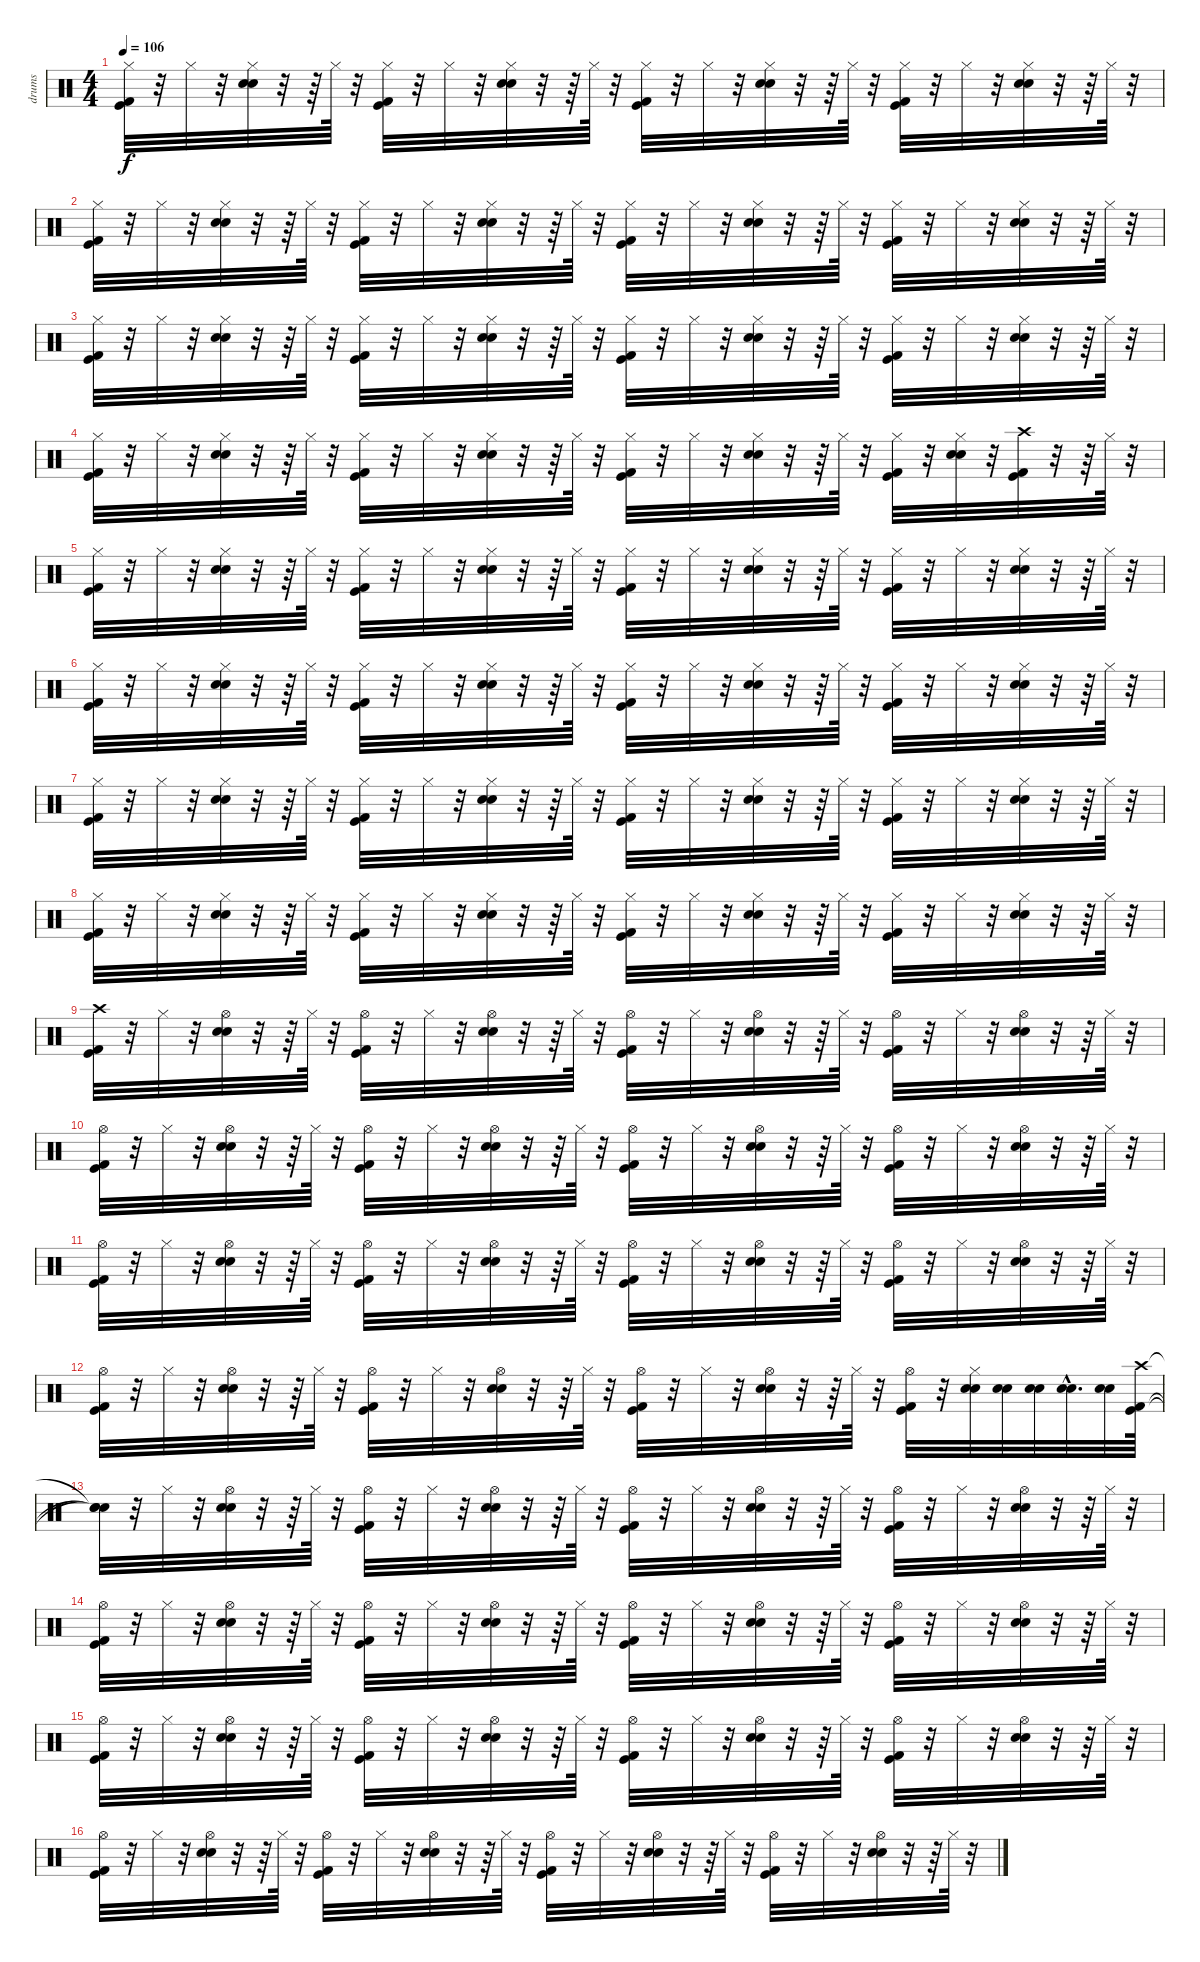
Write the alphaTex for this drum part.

\track ("drums" "drums") {instrument percussion}
\staff {score}
\articulation defaults
\ts (4 4)
\tempo 106
\clef neutral
\ks c
("Kick (hit) 2" "Kick (hit)" "Hi-Hat (closed)").32{dy f} r.32 "Hi-Hat (closed)".32 r.32 ("Electric Snare (hit)" "Snare (hit) 2" "Hi-Hat (closed)").32 r.32 r.64 "Hi-Hat (closed)".64 r.32 ("Kick (hit) 2" "Kick (hit)" "Hi-Hat (closed)").32 r.32 "Hi-Hat (closed)".32 r.32 ("Electric Snare (hit)" "Snare (hit) 2" "Hi-Hat (closed)").32 r.32 r.64 "Hi-Hat (closed)".64 r.32 ("Kick (hit) 2" "Kick (hit)" "Hi-Hat (closed)").32 r.32 "Hi-Hat (closed)".32 r.32 ("Electric Snare (hit)" "Snare (hit) 2" "Hi-Hat (closed)").32 r.32 r.64 "Hi-Hat (closed)".64 r.32 ("Kick (hit) 2" "Kick (hit)" "Hi-Hat (closed)").32 r.32 "Hi-Hat (closed)".32 r.32 ("Electric Snare (hit)" "Snare (hit) 2" "Hi-Hat (closed)").32 r.32 r.64 "Hi-Hat (closed)".64 r.32 |
("Kick (hit) 2" "Kick (hit)" "Hi-Hat (closed)").32 r.32 "Hi-Hat (closed)".32 r.32 ("Electric Snare (hit)" "Snare (hit) 2" "Hi-Hat (closed)").32 r.32 r.64 "Hi-Hat (closed)".64 r.32 ("Kick (hit) 2" "Kick (hit)" "Hi-Hat (closed)").32 r.32 "Hi-Hat (closed)".32 r.32 ("Electric Snare (hit)" "Snare (hit) 2" "Hi-Hat (closed)").32 r.32 r.64 "Hi-Hat (closed)".64 r.32 ("Kick (hit) 2" "Kick (hit)" "Hi-Hat (closed)").32 r.32 "Hi-Hat (closed)".32 r.32 ("Electric Snare (hit)" "Snare (hit) 2" "Hi-Hat (closed)").32 r.32 r.64 "Hi-Hat (closed)".64 r.32 ("Kick (hit) 2" "Kick (hit)" "Hi-Hat (closed)").32 r.32 "Hi-Hat (closed)".32 r.32 ("Electric Snare (hit)" "Snare (hit) 2" "Hi-Hat (closed)").32 r.32 r.64 "Hi-Hat (closed)".64 r.32 |
("Kick (hit) 2" "Kick (hit)" "Hi-Hat (closed)").32 r.32 "Hi-Hat (closed)".32 r.32 ("Electric Snare (hit)" "Snare (hit) 2" "Hi-Hat (closed)").32 r.32 r.64 "Hi-Hat (closed)".64 r.32 ("Kick (hit) 2" "Kick (hit)" "Hi-Hat (closed)").32 r.32 "Hi-Hat (closed)".32 r.32 ("Electric Snare (hit)" "Snare (hit) 2" "Hi-Hat (closed)").32 r.32 r.64 "Hi-Hat (closed)".64 r.32 ("Kick (hit) 2" "Kick (hit)" "Hi-Hat (closed)").32 r.32 "Hi-Hat (closed)".32 r.32 ("Electric Snare (hit)" "Snare (hit) 2" "Hi-Hat (closed)").32 r.32 r.64 "Hi-Hat (closed)".64 r.32 ("Kick (hit) 2" "Kick (hit)" "Hi-Hat (closed)").32 r.32 "Hi-Hat (closed)".32 r.32 ("Electric Snare (hit)" "Snare (hit) 2" "Hi-Hat (closed)").32 r.32 r.64 "Hi-Hat (closed)".64 r.32 |
("Kick (hit) 2" "Kick (hit)" "Hi-Hat (closed)").32 r.32 "Hi-Hat (closed)".32 r.32 ("Electric Snare (hit)" "Snare (hit) 2" "Hi-Hat (closed)").32 r.32 r.64 "Hi-Hat (closed)".64 r.32 ("Kick (hit) 2" "Kick (hit)" "Hi-Hat (closed)").32 r.32 "Hi-Hat (closed)".32 r.32 ("Electric Snare (hit)" "Snare (hit) 2" "Hi-Hat (closed)").32 r.32 r.64 "Hi-Hat (closed)".64 r.32 ("Kick (hit) 2" "Kick (hit)" "Hi-Hat (closed)").32 r.32 "Hi-Hat (closed)".32 r.32 ("Electric Snare (hit)" "Snare (hit) 2" "Hi-Hat (closed)").32 r.32 r.64 "Hi-Hat (closed)".64 r.32 ("Kick (hit) 2" "Kick (hit)" "Hi-Hat (closed)").32 r.32 ("Hi-Hat (closed)" "Snare (hit) 2" "Electric Snare (hit)").32 r.32 ("Kick (hit) 2" "Kick (hit)" "Crash high (hit)").32 r.32 r.64 "Hi-Hat (closed)".64 r.32 |
("Kick (hit) 2" "Kick (hit)" "Hi-Hat (closed)").32 r.32 "Hi-Hat (closed)".32 r.32 ("Electric Snare (hit)" "Snare (hit) 2" "Hi-Hat (closed)").32 r.32 r.64 "Hi-Hat (closed)".64 r.32 ("Kick (hit) 2" "Kick (hit)" "Hi-Hat (closed)").32 r.32 "Hi-Hat (closed)".32 r.32 ("Electric Snare (hit)" "Snare (hit) 2" "Hi-Hat (closed)").32 r.32 r.64 "Hi-Hat (closed)".64 r.32 ("Kick (hit) 2" "Kick (hit)" "Hi-Hat (closed)").32 r.32 "Hi-Hat (closed)".32 r.32 ("Electric Snare (hit)" "Snare (hit) 2" "Hi-Hat (closed)").32 r.32 r.64 "Hi-Hat (closed)".64 r.32 ("Kick (hit) 2" "Kick (hit)" "Hi-Hat (closed)").32 r.32 "Hi-Hat (closed)".32 r.32 ("Electric Snare (hit)" "Snare (hit) 2" "Hi-Hat (closed)").32 r.32 r.64 "Hi-Hat (closed)".64 r.32 |
("Kick (hit) 2" "Kick (hit)" "Hi-Hat (closed)").32 r.32 "Hi-Hat (closed)".32 r.32 ("Electric Snare (hit)" "Snare (hit) 2" "Hi-Hat (closed)").32 r.32 r.64 "Hi-Hat (closed)".64 r.32 ("Kick (hit) 2" "Kick (hit)" "Hi-Hat (closed)").32 r.32 "Hi-Hat (closed)".32 r.32 ("Electric Snare (hit)" "Snare (hit) 2" "Hi-Hat (closed)").32 r.32 r.64 "Hi-Hat (closed)".64 r.32 ("Kick (hit) 2" "Kick (hit)" "Hi-Hat (closed)").32 r.32 "Hi-Hat (closed)".32 r.32 ("Electric Snare (hit)" "Snare (hit) 2" "Hi-Hat (closed)").32 r.32 r.64 "Hi-Hat (closed)".64 r.32 ("Kick (hit) 2" "Kick (hit)" "Hi-Hat (closed)").32 r.32 "Hi-Hat (closed)".32 r.32 ("Electric Snare (hit)" "Snare (hit) 2" "Hi-Hat (closed)").32 r.32 r.64 "Hi-Hat (closed)".64 r.32 |
("Kick (hit) 2" "Kick (hit)" "Hi-Hat (closed)").32 r.32 "Hi-Hat (closed)".32 r.32 ("Electric Snare (hit)" "Snare (hit) 2" "Hi-Hat (closed)").32 r.32 r.64 "Hi-Hat (closed)".64 r.32 ("Kick (hit) 2" "Kick (hit)" "Hi-Hat (closed)").32 r.32 "Hi-Hat (closed)".32 r.32 ("Electric Snare (hit)" "Snare (hit) 2" "Hi-Hat (closed)").32 r.32 r.64 "Hi-Hat (closed)".64 r.32 ("Kick (hit) 2" "Kick (hit)" "Hi-Hat (closed)").32 r.32 "Hi-Hat (closed)".32 r.32 ("Electric Snare (hit)" "Snare (hit) 2" "Hi-Hat (closed)").32 r.32 r.64 "Hi-Hat (closed)".64 r.32 ("Kick (hit) 2" "Kick (hit)" "Hi-Hat (closed)").32 r.32 "Hi-Hat (closed)".32 r.32 ("Electric Snare (hit)" "Snare (hit) 2" "Hi-Hat (closed)").32 r.32 r.64 "Hi-Hat (closed)".64 r.32 |
("Kick (hit) 2" "Kick (hit)" "Hi-Hat (closed)").32 r.32 "Hi-Hat (closed)".32 r.32 ("Electric Snare (hit)" "Snare (hit) 2" "Hi-Hat (closed)").32 r.32 r.64 "Hi-Hat (closed)".64 r.32 ("Kick (hit) 2" "Kick (hit)" "Hi-Hat (closed)").32 r.32 "Hi-Hat (closed)".32 r.32 ("Electric Snare (hit)" "Snare (hit) 2" "Hi-Hat (closed)").32 r.32 r.64 "Hi-Hat (closed)".64 r.32 ("Kick (hit) 2" "Kick (hit)" "Hi-Hat (closed)").32 r.32 "Hi-Hat (closed)".32 r.32 ("Electric Snare (hit)" "Snare (hit) 2" "Hi-Hat (closed)").32 r.32 r.64 "Hi-Hat (closed)".64 r.32 ("Kick (hit) 2" "Kick (hit)" "Hi-Hat (closed)").32 r.32 "Hi-Hat (closed)".32 r.32 ("Electric Snare (hit)" "Snare (hit) 2" "Hi-Hat (closed)").32 r.32 r.64 "Hi-Hat (closed)".64 r.32 |
("Kick (hit) 2" "Kick (hit)" "Crash high (hit)").32 r.32 "Hi-Hat (closed)".32 r.32 ("Electric Snare (hit)" "Snare (hit) 2" "Hi-Hat (open)").32 r.32 r.64 "Hi-Hat (closed)".64 r.32 ("Kick (hit) 2" "Kick (hit)" "Hi-Hat (open)").32 r.32 "Hi-Hat (closed)".32 r.32 ("Electric Snare (hit)" "Snare (hit) 2" "Hi-Hat (open)").32 r.32 r.64 "Hi-Hat (closed)".64 r.32 ("Kick (hit) 2" "Kick (hit)" "Hi-Hat (open)").32 r.32 "Hi-Hat (closed)".32 r.32 ("Electric Snare (hit)" "Snare (hit) 2" "Hi-Hat (open)").32 r.32 r.64 "Hi-Hat (closed)".64 r.32 ("Kick (hit) 2" "Kick (hit)" "Hi-Hat (open)").32 r.32 "Hi-Hat (closed)".32 r.32 ("Electric Snare (hit)" "Snare (hit) 2" "Hi-Hat (open)").32 r.32 r.64 "Hi-Hat (closed)".64 r.32 |
("Hi-Hat (open)" "Kick (hit)" "Kick (hit) 2").32 r.32 "Hi-Hat (closed)".32 r.32 ("Electric Snare (hit)" "Snare (hit) 2" "Hi-Hat (open)").32 r.32 r.64 "Hi-Hat (closed)".64 r.32 ("Kick (hit) 2" "Kick (hit)" "Hi-Hat (open)").32 r.32 "Hi-Hat (closed)".32 r.32 ("Electric Snare (hit)" "Snare (hit) 2" "Hi-Hat (open)").32 r.32 r.64 "Hi-Hat (closed)".64 r.32 ("Kick (hit) 2" "Kick (hit)" "Hi-Hat (open)").32 r.32 "Hi-Hat (closed)".32 r.32 ("Electric Snare (hit)" "Snare (hit) 2" "Hi-Hat (open)").32 r.32 r.64 "Hi-Hat (closed)".64 r.32 ("Kick (hit) 2" "Kick (hit)" "Hi-Hat (open)").32 r.32 "Hi-Hat (closed)".32 r.32 ("Electric Snare (hit)" "Snare (hit) 2" "Hi-Hat (open)").32 r.32 r.64 "Hi-Hat (closed)".64 r.32 |
("Hi-Hat (open)" "Kick (hit)" "Kick (hit) 2").32 r.32 "Hi-Hat (closed)".32 r.32 ("Electric Snare (hit)" "Snare (hit) 2" "Hi-Hat (open)").32 r.32 r.64 "Hi-Hat (closed)".64 r.32 ("Kick (hit) 2" "Kick (hit)" "Hi-Hat (open)").32 r.32 "Hi-Hat (closed)".32 r.32 ("Electric Snare (hit)" "Snare (hit) 2" "Hi-Hat (open)").32 r.32 r.64 "Hi-Hat (closed)".64 r.32 ("Kick (hit) 2" "Kick (hit)" "Hi-Hat (open)").32 r.32 "Hi-Hat (closed)".32 r.32 ("Electric Snare (hit)" "Snare (hit) 2" "Hi-Hat (open)").32 r.32 r.64 "Hi-Hat (closed)".64 r.32 ("Kick (hit) 2" "Kick (hit)" "Hi-Hat (open)").32 r.32 "Hi-Hat (closed)".32 r.32 ("Electric Snare (hit)" "Snare (hit) 2" "Hi-Hat (open)").32 r.32 r.64 "Hi-Hat (closed)".64 r.32 |
("Hi-Hat (open)" "Kick (hit)" "Kick (hit) 2").32 r.32 "Hi-Hat (closed)".32 r.32 ("Electric Snare (hit)" "Snare (hit) 2" "Hi-Hat (open)").32 r.32 r.64 "Hi-Hat (closed)".64 r.32 ("Kick (hit) 2" "Kick (hit)" "Hi-Hat (open)").32 r.32 "Hi-Hat (closed)".32 r.32 ("Electric Snare (hit)" "Snare (hit) 2" "Hi-Hat (open)").32 r.32 r.64 "Hi-Hat (closed)".64 r.32 ("Kick (hit) 2" "Kick (hit)" "Hi-Hat (open)").32 r.32 "Hi-Hat (closed)".32 r.32 ("Electric Snare (hit)" "Snare (hit) 2" "Hi-Hat (open)").32 r.32 r.64 "Hi-Hat (closed)".64 r.32 ("Kick (hit) 2" "Kick (hit)" "Hi-Hat (open)").32 r.32 ("Hi-Hat (closed)" "Snare (hit) 2" "Electric Snare (hit)").32 ("Electric Snare (hit)" "Snare (hit) 2").32 ("Electric Snare (hit)" "Snare (hit) 2").32 ("Snare (hit) 2"{hac} "Electric Snare (hit)"{hac}).32{d} ("Electric Snare (hit)" "Snare (hit) 2").32 ("Kick (hit)" "Kick (hit) 2" "Crash high (hit)").64 |
("Snare (hit)"{t} "Snare (hit)"{t} "Snare (hit)"{t}).32 r.32 "Hi-Hat (closed)".32 r.32 ("Electric Snare (hit)" "Snare (hit) 2" "Hi-Hat (open)").32 r.32 r.64 "Hi-Hat (closed)".64 r.32 ("Kick (hit) 2" "Kick (hit)" "Hi-Hat (open)").32 r.32 "Hi-Hat (closed)".32 r.32 ("Electric Snare (hit)" "Snare (hit) 2" "Hi-Hat (open)").32 r.32 r.64 "Hi-Hat (closed)".64 r.32 ("Kick (hit) 2" "Kick (hit)" "Hi-Hat (open)").32 r.32 "Hi-Hat (closed)".32 r.32 ("Electric Snare (hit)" "Snare (hit) 2" "Hi-Hat (open)").32 r.32 r.64 "Hi-Hat (closed)".64 r.32 ("Kick (hit) 2" "Kick (hit)" "Hi-Hat (open)").32 r.32 "Hi-Hat (closed)".32 r.32 ("Electric Snare (hit)" "Snare (hit) 2" "Hi-Hat (open)").32 r.32 r.64 "Hi-Hat (closed)".64 r.32 |
("Hi-Hat (open)" "Kick (hit)" "Kick (hit) 2").32 r.32 "Hi-Hat (closed)".32 r.32 ("Electric Snare (hit)" "Snare (hit) 2" "Hi-Hat (open)").32 r.32 r.64 "Hi-Hat (closed)".64 r.32 ("Kick (hit) 2" "Kick (hit)" "Hi-Hat (open)").32 r.32 "Hi-Hat (closed)".32 r.32 ("Electric Snare (hit)" "Snare (hit) 2" "Hi-Hat (open)").32 r.32 r.64 "Hi-Hat (closed)".64 r.32 ("Kick (hit) 2" "Kick (hit)" "Hi-Hat (open)").32 r.32 "Hi-Hat (closed)".32 r.32 ("Electric Snare (hit)" "Snare (hit) 2" "Hi-Hat (open)").32 r.32 r.64 "Hi-Hat (closed)".64 r.32 ("Kick (hit) 2" "Kick (hit)" "Hi-Hat (open)").32 r.32 "Hi-Hat (closed)".32 r.32 ("Electric Snare (hit)" "Snare (hit) 2" "Hi-Hat (open)").32 r.32 r.64 "Hi-Hat (closed)".64 r.32 |
("Hi-Hat (open)" "Kick (hit)" "Kick (hit) 2").32 r.32 "Hi-Hat (closed)".32 r.32 ("Electric Snare (hit)" "Snare (hit) 2" "Hi-Hat (open)").32 r.32 r.64 "Hi-Hat (closed)".64 r.32 ("Kick (hit) 2" "Kick (hit)" "Hi-Hat (open)").32 r.32 "Hi-Hat (closed)".32 r.32 ("Electric Snare (hit)" "Snare (hit) 2" "Hi-Hat (open)").32 r.32 r.64 "Hi-Hat (closed)".64 r.32 ("Kick (hit) 2" "Kick (hit)" "Hi-Hat (open)").32 r.32 "Hi-Hat (closed)".32 r.32 ("Electric Snare (hit)" "Snare (hit) 2" "Hi-Hat (open)").32 r.32 r.64 "Hi-Hat (closed)".64 r.32 ("Kick (hit) 2" "Kick (hit)" "Hi-Hat (open)").32 r.32 "Hi-Hat (closed)".32 r.32 ("Electric Snare (hit)" "Snare (hit) 2" "Hi-Hat (open)").32 r.32 r.64 "Hi-Hat (closed)".64 r.32 |
("Hi-Hat (open)" "Kick (hit)" "Kick (hit) 2").32 r.32 "Hi-Hat (closed)".32 r.32 ("Electric Snare (hit)" "Snare (hit) 2" "Hi-Hat (open)").32 r.32 r.64 "Hi-Hat (closed)".64 r.32 ("Kick (hit) 2" "Kick (hit)" "Hi-Hat (open)").32 r.32 "Hi-Hat (closed)".32 r.32 ("Electric Snare (hit)" "Snare (hit) 2" "Hi-Hat (open)").32 r.32 r.64 "Hi-Hat (closed)".64 r.32 ("Kick (hit) 2" "Kick (hit)" "Hi-Hat (open)").32 r.32 "Hi-Hat (closed)".32 r.32 ("Electric Snare (hit)" "Snare (hit) 2" "Hi-Hat (open)").32 r.32 r.64 "Hi-Hat (closed)".64 r.32 ("Kick (hit) 2" "Kick (hit)" "Hi-Hat (open)").32 r.32 "Hi-Hat (closed)".32 r.32 ("Electric Snare (hit)" "Snare (hit) 2" "Hi-Hat (open)").32 r.32 r.64 "Hi-Hat (closed)".64 r.32
